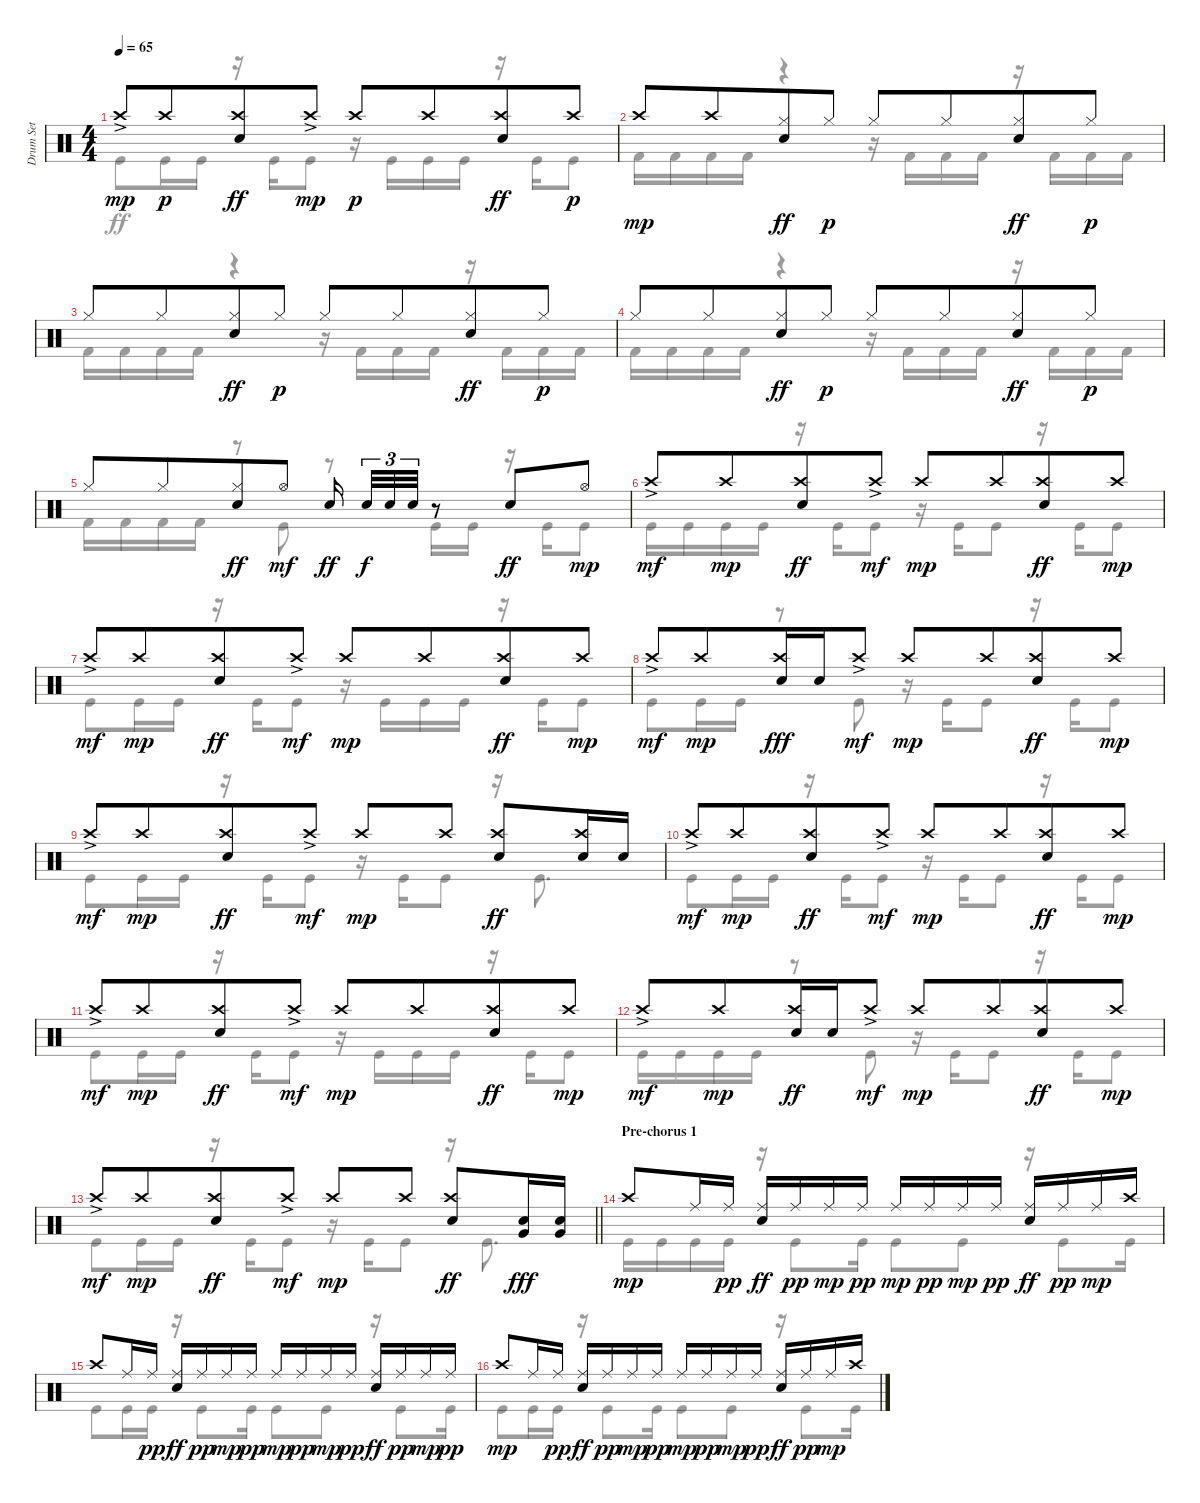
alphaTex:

\track ("Drum Set" "Drum Set") {instrument percussion}
\staff {score}
\articulation defaults
\voice
\ts (4 4)
\tempo 65
\clef neutral
\ks c "Crash high (hit)"{ac}.8{dy mp} "Crash high (hit)".8{dy p beam merge}
("Crash high (hit)" "Electric Snare (hit)").8{dy ff} "Crash high (hit)"{ac}.8{dy mp} "Crash high (hit)".8{dy p} "Crash high (hit)".8{beam merge} ("Crash high (hit)" "Electric Snare (hit)").8{dy ff} "Crash high (hit)".8{dy p} |
"Crash high (hit)".8{dy mp} "Crash high (hit)".8{beam merge} ("Hi-Hat (closed)" "Electric Snare (hit)").8{dy ff} "Hi-Hat (closed)".8{dy p} "Hi-Hat (closed)".8 "Hi-Hat (closed)".8{beam merge} ("Hi-Hat (closed)" "Electric Snare (hit)").8{dy ff} "Hi-Hat (closed)".8{dy p} |
"Hi-Hat (closed)".8 "Hi-Hat (closed)".8{beam merge} ("Hi-Hat (closed)" "Electric Snare (hit)").8{dy ff} "Hi-Hat (closed)".8{dy p} "Hi-Hat (closed)".8 "Hi-Hat (closed)".8{beam merge} ("Hi-Hat (closed)" "Electric Snare (hit)").8{dy ff} "Hi-Hat (closed)".8{dy p} |
"Hi-Hat (closed)".8 "Hi-Hat (closed)".8{beam merge} ("Hi-Hat (closed)" "Electric Snare (hit)").8{dy ff} "Hi-Hat (closed)".8{dy p} "Hi-Hat (closed)".8 "Hi-Hat (closed)".8{beam merge} ("Hi-Hat (closed)" "Electric Snare (hit)").8{dy ff} "Hi-Hat (closed)".8{dy p} |
"Hi-Hat (closed)".8 "Hi-Hat (closed)".8{beam merge} ("Hi-Hat (closed)" "Electric Snare (hit)").8{dy ff} "Hi-Hat (open)".8{dy mf} "Electric Snare (hit)".16{dy ff beam splitsecondary} "Electric Snare (hit)".32{tu (3 2) dy f} "Electric Snare (hit)".32{tu (3 2)} "Electric Snare (hit)".32{tu (3 2)} r.8 "Electric Snare (hit)".8{dy ff} "Hi-Hat (open)".8{dy mp} |
"Crash high (hit)"{ac}.8{dy mf} "Crash high (hit)".8{dy mp beam merge} ("Crash high (hit)" "Electric Snare (hit)").8{dy ff} "Crash high (hit)"{ac}.8{dy mf} "Crash high (hit)".8{dy mp} "Crash high (hit)".8{beam merge} ("Crash high (hit)" "Electric Snare (hit)").8{dy ff} "Crash high (hit)".8{dy mp} |
"Crash high (hit)"{ac}.8{dy mf} "Crash high (hit)".8{dy mp beam merge} ("Crash high (hit)" "Electric Snare (hit)").8{dy ff} "Crash high (hit)"{ac}.8{dy mf} "Crash high (hit)".8{dy mp} "Crash high (hit)".8{beam merge} ("Crash high (hit)" "Electric Snare (hit)").8{dy ff} "Crash high (hit)".8{dy mp} |
"Crash high (hit)"{ac}.8{dy mf} "Crash high (hit)".8{dy mp beam merge} ("Crash high (hit)" "Electric Snare (hit)").16{dy fff} "Electric Snare (hit)".16 "Crash high (hit)"{ac}.8{dy mf} "Crash high (hit)".8{dy mp} "Crash high (hit)".8{beam merge} ("Crash high (hit)" "Electric Snare (hit)").8{dy ff} "Crash high (hit)".8{dy mp} |
"Crash high (hit)"{ac}.8{dy mf} "Crash high (hit)".8{dy mp beam merge} ("Crash high (hit)" "Electric Snare (hit)").8{dy ff} "Crash high (hit)"{ac}.8{dy mf} "Crash high (hit)".8{dy mp} "Crash high (hit)".8{beam split} ("Crash high (hit)" "Electric Snare (hit)").8{dy ff} ("Crash high (hit)" "Electric Snare (hit)").16 "Electric Snare (hit)".16 |
"Crash high (hit)"{ac}.8{dy mf} "Crash high (hit)".8{dy mp beam merge} ("Crash high (hit)" "Electric Snare (hit)").8{dy ff} "Crash high (hit)"{ac}.8{dy mf} "Crash high (hit)".8{dy mp} "Crash high (hit)".8{beam merge} ("Crash high (hit)" "Electric Snare (hit)").8{dy ff} "Crash high (hit)".8{dy mp} |
"Crash high (hit)"{ac}.8{dy mf} "Crash high (hit)".8{dy mp beam merge} ("Crash high (hit)" "Electric Snare (hit)").8{dy ff} "Crash high (hit)"{ac}.8{dy mf} "Crash high (hit)".8{dy mp} "Crash high (hit)".8{beam merge} ("Crash high (hit)" "Electric Snare (hit)").8{dy ff} "Crash high (hit)".8{dy mp} |
"Crash high (hit)"{ac}.8{dy mf} "Crash high (hit)".8{dy mp beam merge} ("Crash high (hit)" "Electric Snare (hit)").16{dy ff} "Electric Snare (hit)".16 "Crash high (hit)"{ac}.8{dy mf} "Crash high (hit)".8{dy mp} "Crash high (hit)".8{beam merge} ("Crash high (hit)" "Electric Snare (hit)").8{dy ff} "Crash high (hit)".8{dy mp} |
\barLineRight lightlight "Crash high (hit)"{ac}.8{dy mf} "Crash high (hit)".8{dy mp beam merge}
("Crash high (hit)" "Electric Snare (hit)").8{dy ff} "Crash high (hit)"{ac}.8{dy mf} "Crash high (hit)".8{dy mp} "Crash high (hit)".8{beam split} ("Crash high (hit)" "Electric Snare (hit)").8{dy ff} ("Very Low Tom (hit)" "Electric Snare (hit)").16{dy fff} ("Electric Snare (hit)" "Very Low Tom (hit)").16 |
\section ("" "Pre-chorus 1")
"Crash high (hit)".8{dy mp} "Ride (middle)".16 "Ride (middle)".16{dy pp} ("Ride (middle)" "Electric Snare (hit)").16{dy ff} "Ride (middle)".16{dy pp} "Ride (middle)".16{dy mp} "Ride (middle)".16{dy pp} "Ride (middle)".16{dy mp} "Ride (middle)".16{dy pp} "Ride (middle)".16{dy mp} "Ride (middle)".16{dy pp} ("Ride (middle)" "Electric Snare (hit)").16{dy ff} "Ride (middle)".16{dy pp} "Ride (middle)".16{dy mp} "Crash high (hit)".16 |
"Crash high (hit)".8 "Ride (middle)".16 "Ride (middle)".16{dy pp} ("Ride (middle)" "Electric Snare (hit)").16{dy ff} "Ride (middle)".16{dy pp} "Ride (middle)".16{dy mp} "Ride (middle)".16{dy pp} "Ride (middle)".16{dy mp} "Ride (middle)".16{dy pp} "Ride (middle)".16{dy mp} "Ride (middle)".16{dy pp} ("Ride (middle)" "Electric Snare (hit)").16{dy ff} "Ride (middle)".16{dy pp} "Ride (middle)".16{dy mp} "Ride (middle)".16{dy pp} |
"Crash high (hit)".8{dy mp} "Ride (middle)".16 "Ride (middle)".16{dy pp} ("Ride (middle)" "Electric Snare (hit)").16{dy ff} "Ride (middle)".16{dy pp} "Ride (middle)".16{dy mp} "Ride (middle)".16{dy pp} "Ride (middle)".16{dy mp} "Ride (middle)".16{dy pp} "Ride (middle)".16{dy mp} "Ride (middle)".16{dy pp} ("Ride (middle)" "Electric Snare (hit)").16{dy ff} "Ride (middle)".16{dy pp} "Ride (middle)".16{dy mp} "Crash high (hit)".16
\voice
\clef neutral
\ottava regular
\simile none
\ks c "Kick (hit)".8{dy ff} "Kick (hit)".16 "Kick (hit)".16
r.16 "Kick (hit)".16 "Kick (hit)".8 r.16 "Kick (hit)".16 "Kick (hit)".16 "Kick (hit)".16 r.16 "Kick (hit)".16 "Kick (hit)".8 |
"Kick (hit) 2".16 "Kick (hit) 2".16 "Kick (hit) 2".16 "Kick (hit) 2".16 r.4 r.16 "Kick (hit) 2".16 "Kick (hit) 2".16 "Kick (hit) 2".16 r.16 "Kick (hit) 2".16 "Kick (hit) 2".16 "Kick (hit) 2".16 |
"Kick (hit) 2".16 "Kick (hit) 2".16 "Kick (hit) 2".16 "Kick (hit) 2".16 r.4 r.16 "Kick (hit) 2".16 "Kick (hit) 2".16 "Kick (hit) 2".16 r.16 "Kick (hit) 2".16 "Kick (hit) 2".16 "Kick (hit) 2".16 |
"Kick (hit) 2".16 "Kick (hit) 2".16 "Kick (hit) 2".16 "Kick (hit) 2".16 r.4 r.16 "Kick (hit) 2".16 "Kick (hit) 2".16 "Kick (hit) 2".16 r.16 "Kick (hit) 2".16 "Kick (hit) 2".16 "Kick (hit) 2".16 |
"Kick (hit) 2".16 "Kick (hit) 2".16 "Kick (hit) 2".16 "Kick (hit) 2".16 r.8 "Kick (hit)".8 r.8 "Kick (hit)".16 "Kick (hit)".16 r.16 "Kick (hit)".16 "Kick (hit)".8 |
"Kick (hit)".16 "Kick (hit)".16 "Kick (hit)".16 "Kick (hit)".16 r.16 "Kick (hit)".16 "Kick (hit)".8 r.16 "Kick (hit)".16 "Kick (hit)".8 r.16 "Kick (hit)".16 "Kick (hit)".8 |
"Kick (hit)".8 "Kick (hit)".16 "Kick (hit)".16 r.16 "Kick (hit)".16 "Kick (hit)".8 r.16 "Kick (hit)".16 "Kick (hit)".16 "Kick (hit)".16 r.16 "Kick (hit)".16 "Kick (hit)".8 |
"Kick (hit)".8 "Kick (hit)".16 "Kick (hit)".16 r.8 "Kick (hit)".8 r.16 "Kick (hit)".16 "Kick (hit)".8 r.16 "Kick (hit)".16 "Kick (hit)".8 |
"Kick (hit)".8 "Kick (hit)".16 "Kick (hit)".16 r.16 "Kick (hit)".16 "Kick (hit)".8 r.16 "Kick (hit)".16 "Kick (hit)".8 r.16 "Kick (hit)".8{d} |
"Kick (hit)".8 "Kick (hit)".16 "Kick (hit)".16 r.16 "Kick (hit)".16 "Kick (hit)".8 r.16 "Kick (hit)".16 "Kick (hit)".8 r.16 "Kick (hit)".16 "Kick (hit)".8 |
"Kick (hit)".8 "Kick (hit)".16 "Kick (hit)".16 r.16 "Kick (hit)".16 "Kick (hit)".8 r.16 "Kick (hit)".16 "Kick (hit)".16 "Kick (hit)".16 r.16 "Kick (hit)".16 "Kick (hit)".8 |
"Kick (hit)".16 "Kick (hit)".16 "Kick (hit)".16 "Kick (hit)".16 r.8 "Kick (hit)".8 r.16 "Kick (hit)".16 "Kick (hit)".8 r.16 "Kick (hit)".16 "Kick (hit)".8 |
\barLineRight lightlight "Kick (hit)".8 "Kick (hit)".16 "Kick (hit)".16
r.16 "Kick (hit)".16 "Kick (hit)".8 r.16 "Kick (hit)".16 "Kick (hit)".8 r.16 "Kick (hit)".8{d} |
"Kick (hit)".16 "Kick (hit)".16 "Kick (hit)".16 "Kick (hit)".16 r.16 "Kick (hit)".8 "Kick (hit)".16 "Kick (hit)".8 "Kick (hit)".8 r.16 "Kick (hit)".8 "Kick (hit)".16 |
"Kick (hit)".8 "Kick (hit)".16 "Kick (hit)".16 r.16 "Kick (hit)".8 "Kick (hit)".16 "Kick (hit)".8 "Kick (hit)".8 r.16 "Kick (hit)".8 "Kick (hit)".16 |
"Kick (hit)".8 "Kick (hit)".16 "Kick (hit)".16 r.16 "Kick (hit)".8 "Kick (hit)".16 "Kick (hit)".8 "Kick (hit)".8 r.16 "Kick (hit)".8 "Kick (hit)".16
